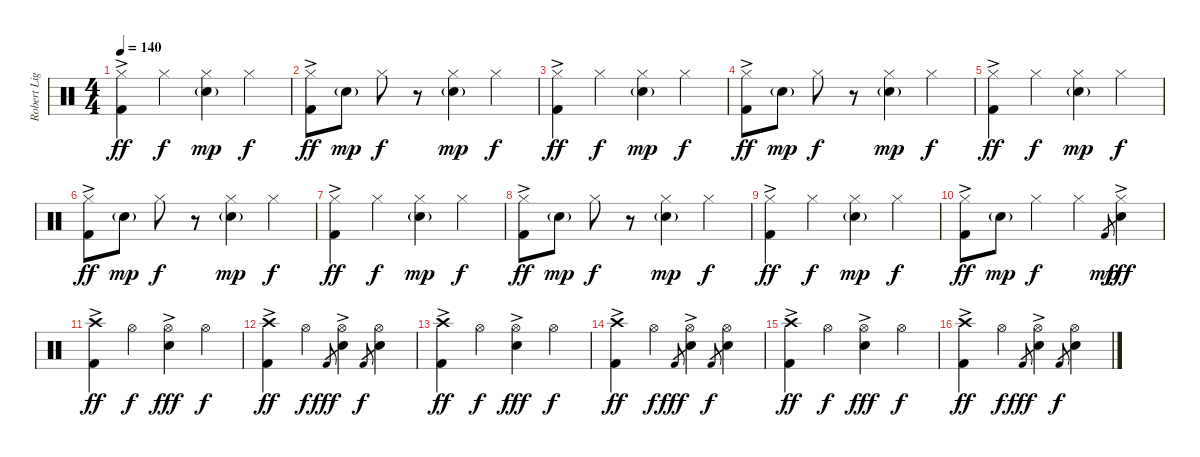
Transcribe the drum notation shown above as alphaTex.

\track ("Robert Ligiewicz (Perkusja)" "Robert Lig") {instrument percussion}
\staff {score}
\articulation defaults
\ts (4 4)
\tempo 140
\clef neutral
\ks c
("Hi-Hat (closed)" "Kick (hit) 2"{ac}).4{dy ff} "Hi-Hat (closed)".4{dy f} ("Hi-Hat (closed)" "Electric Snare (hit)"{g}).4{dy mp} "Hi-Hat (closed)".4{dy f} |
("Hi-Hat (closed)" "Kick (hit) 2"{ac}).8{dy ff} "Electric Snare (hit)"{g}.8{dy mp} "Hi-Hat (closed)".8{dy f} r.8 ("Hi-Hat (closed)" "Electric Snare (hit)"{g}).4{dy mp} "Hi-Hat (closed)".4{dy f} |
("Hi-Hat (closed)" "Kick (hit) 2"{ac}).4{dy ff} "Hi-Hat (closed)".4{dy f} ("Hi-Hat (closed)" "Electric Snare (hit)"{g}).4{dy mp} "Hi-Hat (closed)".4{dy f} |
("Hi-Hat (closed)" "Kick (hit) 2"{ac}).8{dy ff} "Electric Snare (hit)"{g}.8{dy mp} "Hi-Hat (closed)".8{dy f} r.8 ("Hi-Hat (closed)" "Electric Snare (hit)"{g}).4{dy mp} "Hi-Hat (closed)".4{dy f} |
("Hi-Hat (closed)" "Kick (hit) 2"{ac}).4{dy ff} "Hi-Hat (closed)".4{dy f} ("Hi-Hat (closed)" "Electric Snare (hit)"{g}).4{dy mp} "Hi-Hat (closed)".4{dy f} |
("Hi-Hat (closed)" "Kick (hit) 2"{ac}).8{dy ff} "Electric Snare (hit)"{g}.8{dy mp} "Hi-Hat (closed)".8{dy f} r.8 ("Hi-Hat (closed)" "Electric Snare (hit)"{g}).4{dy mp} "Hi-Hat (closed)".4{dy f} |
("Hi-Hat (closed)" "Kick (hit) 2"{ac}).4{dy ff} "Hi-Hat (closed)".4{dy f} ("Hi-Hat (closed)" "Electric Snare (hit)"{g}).4{dy mp} "Hi-Hat (closed)".4{dy f} |
("Hi-Hat (closed)" "Kick (hit) 2"{ac}).8{dy ff} "Electric Snare (hit)"{g}.8{dy mp} "Hi-Hat (closed)".8{dy f} r.8 ("Hi-Hat (closed)" "Electric Snare (hit)"{g}).4{dy mp} "Hi-Hat (closed)".4{dy f} |
("Hi-Hat (closed)" "Kick (hit) 2"{ac}).4{dy ff} "Hi-Hat (closed)".4{dy f} ("Hi-Hat (closed)" "Electric Snare (hit)"{g}).4{dy mp} "Hi-Hat (closed)".4{dy f} |
("Hi-Hat (closed)" "Kick (hit) 2"{ac}).8{dy ff} "Electric Snare (hit)"{g}.8{dy mp} "Hi-Hat (closed)".4{dy f} "Hi-Hat (closed)".4 "Kick (hit) 2".8{gr dy mp} ("Hi-Hat (closed)" "Electric Snare (hit)"{ac}).4{dy fff} |
("Crash high (hit)" "Kick (hit) 2"{ac}).4{dy ff} "Hi-Hat (open)".4{dy f} ("Hi-Hat (open)" "Electric Snare (hit)"{ac}).4{dy fff} "Hi-Hat (open)".4{dy f} |
("Crash high (hit)" "Kick (hit) 2"{ac}).4{dy ff} "Hi-Hat (open)".4{dy f} "Kick (hit) 2".8{gr dy fff} ("Hi-Hat (open)" "Electric Snare (hit)"{ac}).4 "Kick (hit) 2".8{gr dy f} ("Hi-Hat (open)" "Electric Snare (hit)").4 |
("Crash high (hit)" "Kick (hit) 2"{ac}).4{dy ff} "Hi-Hat (open)".4{dy f} ("Hi-Hat (open)" "Electric Snare (hit)"{ac}).4{dy fff} "Hi-Hat (open)".4{dy f} |
("Crash high (hit)" "Kick (hit) 2"{ac}).4{dy ff} "Hi-Hat (open)".4{dy f} "Kick (hit) 2".8{gr dy fff} ("Hi-Hat (open)" "Electric Snare (hit)"{ac}).4 "Kick (hit) 2".8{gr dy f} ("Hi-Hat (open)" "Electric Snare (hit)").4 |
("Crash high (hit)" "Kick (hit) 2"{ac}).4{dy ff} "Hi-Hat (open)".4{dy f} ("Hi-Hat (open)" "Electric Snare (hit)"{ac}).4{dy fff} "Hi-Hat (open)".4{dy f} |
("Crash high (hit)" "Kick (hit) 2"{ac}).4{dy ff} "Hi-Hat (open)".4{dy f} "Kick (hit) 2".8{gr dy fff} ("Hi-Hat (open)" "Electric Snare (hit)"{ac}).4 "Kick (hit) 2".8{gr dy f} ("Hi-Hat (open)" "Electric Snare (hit)").4
